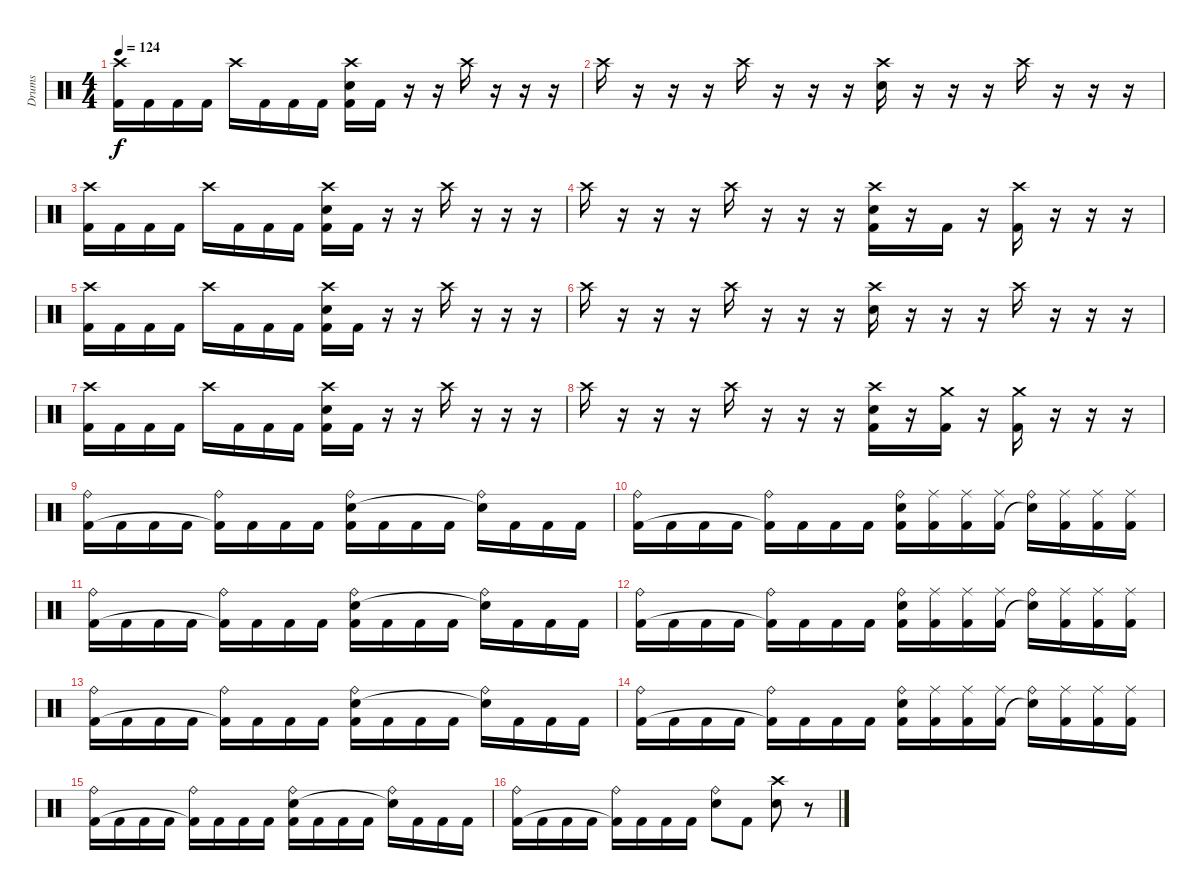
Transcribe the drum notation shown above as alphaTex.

\track ("Drums" "Drums") {instrument percussion}
\staff {score}
\articulation defaults
\ts (4 4)
\tempo 124
\clef neutral
\ks c
("Crash high (hit)" "Kick (hit) 2").16{dy f} "Kick (hit) 2".16 "Kick (hit) 2".16 "Kick (hit) 2".16 "Crash high (hit)".16 "Kick (hit) 2".16 "Kick (hit) 2".16 "Kick (hit) 2".16 ("Crash high (hit)" "Electric Snare (hit)" "Kick (hit) 2").16 "Kick (hit) 2".16 r.16 r.16 "Crash high (hit)".16 r.16 r.16 r.16 |
"Crash high (hit)".16 r.16 r.16 r.16 "Crash high (hit)".16 r.16 r.16 r.16 ("Crash high (hit)" "Electric Snare (hit)").16 r.16 r.16 r.16 "Crash high (hit)".16 r.16 r.16 r.16 |
("Crash high (hit)" "Kick (hit) 2").16 "Kick (hit) 2".16 "Kick (hit) 2".16 "Kick (hit) 2".16 "Crash high (hit)".16 "Kick (hit) 2".16 "Kick (hit) 2".16 "Kick (hit) 2".16 ("Crash high (hit)" "Electric Snare (hit)" "Kick (hit) 2").16 "Kick (hit) 2".16 r.16 r.16 "Crash high (hit)".16 r.16 r.16 r.16 |
"Crash high (hit)".16 r.16 r.16 r.16 "Crash high (hit)".16 r.16 r.16 r.16 ("Crash high (hit)" "Electric Snare (hit)" "Kick (hit) 2").16 r.16 "Kick (hit) 2".16 r.16 ("Crash high (hit)" "Kick (hit) 2").16 r.16 r.16 r.16 |
("Crash high (hit)" "Kick (hit) 2").16 "Kick (hit) 2".16 "Kick (hit) 2".16 "Kick (hit) 2".16 "Crash high (hit)".16 "Kick (hit) 2".16 "Kick (hit) 2".16 "Kick (hit) 2".16 ("Crash high (hit)" "Electric Snare (hit)" "Kick (hit) 2").16 "Kick (hit) 2".16 r.16 r.16 "Crash high (hit)".16 r.16 r.16 r.16 |
"Crash high (hit)".16 r.16 r.16 r.16 "Crash high (hit)".16 r.16 r.16 r.16 ("Crash high (hit)" "Electric Snare (hit)").16 r.16 r.16 r.16 "Crash high (hit)".16 r.16 r.16 r.16 |
("Crash high (hit)" "Kick (hit) 2").16 "Kick (hit) 2".16 "Kick (hit) 2".16 "Kick (hit) 2".16 "Crash high (hit)".16 "Kick (hit) 2".16 "Kick (hit) 2".16 "Kick (hit) 2".16 ("Crash high (hit)" "Electric Snare (hit)" "Kick (hit) 2").16 "Kick (hit) 2".16 r.16 r.16 "Crash high (hit)".16 r.16 r.16 r.16 |
"Crash high (hit)".16 r.16 r.16 r.16 "Crash high (hit)".16 r.16 r.16 r.16 ("Crash high (hit)" "Electric Snare (hit)" "Kick (hit) 2").16 r.16 ("Crash medium (hit)" "Kick (hit) 2").16 r.16 ("Crash medium (hit)" "Kick (hit) 2").16 r.16 r.16 r.16 |
("Ride (bell)" "Kick (hit) 2").16 "Kick (hit) 2".16 "Kick (hit) 2".16 "Kick (hit) 2".16 ("Ride (bell)" "Kick (hit) 2"{t}).16 "Kick (hit) 2".16 "Kick (hit) 2".16 "Kick (hit) 2".16 ("Ride (bell)" "Electric Snare (hit)" "Kick (hit) 2").16 "Kick (hit) 2".16 "Kick (hit) 2".16 "Kick (hit) 2".16 ("Ride (bell)" "Snare (hit)"{t}).16 "Kick (hit) 2".16 "Kick (hit) 2".16 "Kick (hit) 2".16 |
("Ride (bell)" "Kick (hit) 2").16 "Kick (hit) 2".16 "Kick (hit) 2".16 "Kick (hit) 2".16 ("Ride (bell)" "Kick (hit) 2"{t}).16 "Kick (hit) 2".16 "Kick (hit) 2".16 "Kick (hit) 2".16 ("Ride (bell)" "Electric Snare (hit)" "Kick (hit) 2").16 ("Ride (middle)" "Kick (hit) 2").16 ("Ride (middle)" "Kick (hit) 2").16 ("Ride (middle)" "Kick (hit) 2").16 ("Ride (bell)" "Snare (hit)"{t}).16 ("Ride (middle)" "Kick (hit) 2").16 ("Ride (middle)" "Kick (hit) 2").16 ("Ride (middle)" "Kick (hit) 2").16 |
("Ride (bell)" "Kick (hit) 2").16 "Kick (hit) 2".16 "Kick (hit) 2".16 "Kick (hit) 2".16 ("Ride (bell)" "Kick (hit) 2"{t}).16 "Kick (hit) 2".16 "Kick (hit) 2".16 "Kick (hit) 2".16 ("Ride (bell)" "Electric Snare (hit)" "Kick (hit) 2").16 "Kick (hit) 2".16 "Kick (hit) 2".16 "Kick (hit) 2".16 ("Ride (bell)" "Snare (hit)"{t}).16 "Kick (hit) 2".16 "Kick (hit) 2".16 "Kick (hit) 2".16 |
("Ride (bell)" "Kick (hit) 2").16 "Kick (hit) 2".16 "Kick (hit) 2".16 "Kick (hit) 2".16 ("Ride (bell)" "Kick (hit) 2"{t}).16 "Kick (hit) 2".16 "Kick (hit) 2".16 "Kick (hit) 2".16 ("Ride (bell)" "Electric Snare (hit)" "Kick (hit) 2").16 ("Ride (middle)" "Kick (hit) 2").16 ("Ride (middle)" "Kick (hit) 2").16 ("Ride (middle)" "Kick (hit) 2").16 ("Ride (bell)" "Snare (hit)"{t}).16 ("Ride (middle)" "Kick (hit) 2").16 ("Ride (middle)" "Kick (hit) 2").16 ("Ride (middle)" "Kick (hit) 2").16 |
("Ride (bell)" "Kick (hit) 2").16 "Kick (hit) 2".16 "Kick (hit) 2".16 "Kick (hit) 2".16 ("Ride (bell)" "Kick (hit) 2"{t}).16 "Kick (hit) 2".16 "Kick (hit) 2".16 "Kick (hit) 2".16 ("Ride (bell)" "Electric Snare (hit)" "Kick (hit) 2").16 "Kick (hit) 2".16 "Kick (hit) 2".16 "Kick (hit) 2".16 ("Ride (bell)" "Snare (hit)"{t}).16 "Kick (hit) 2".16 "Kick (hit) 2".16 "Kick (hit) 2".16 |
("Ride (bell)" "Kick (hit) 2").16 "Kick (hit) 2".16 "Kick (hit) 2".16 "Kick (hit) 2".16 ("Ride (bell)" "Kick (hit) 2"{t}).16 "Kick (hit) 2".16 "Kick (hit) 2".16 "Kick (hit) 2".16 ("Ride (bell)" "Electric Snare (hit)" "Kick (hit) 2").16 ("Ride (middle)" "Kick (hit) 2").16 ("Ride (middle)" "Kick (hit) 2").16 ("Ride (middle)" "Kick (hit) 2").16 ("Ride (bell)" "Snare (hit)"{t}).16 ("Ride (middle)" "Kick (hit) 2").16 ("Ride (middle)" "Kick (hit) 2").16 ("Ride (middle)" "Kick (hit) 2").16 |
("Ride (bell)" "Kick (hit) 2").16 "Kick (hit) 2".16 "Kick (hit) 2".16 "Kick (hit) 2".16 ("Ride (bell)" "Kick (hit) 2"{t}).16 "Kick (hit) 2".16 "Kick (hit) 2".16 "Kick (hit) 2".16 ("Ride (bell)" "Electric Snare (hit)" "Kick (hit) 2").16 "Kick (hit) 2".16 "Kick (hit) 2".16 "Kick (hit) 2".16 ("Ride (bell)" "Snare (hit)"{t}).16 "Kick (hit) 2".16 "Kick (hit) 2".16 "Kick (hit) 2".16 |
("Ride (bell)" "Kick (hit) 2").16 "Kick (hit) 2".16 "Kick (hit) 2".16 "Kick (hit) 2".16 ("Ride (bell)" "Kick (hit) 2"{t}).16 "Kick (hit) 2".16 "Kick (hit) 2".16 "Kick (hit) 2".16 ("Ride (bell)" "Electric Snare (hit)").8 "Kick (hit) 2".8 ("Crash high (hit)" "Electric Snare (hit)").8 r.8
